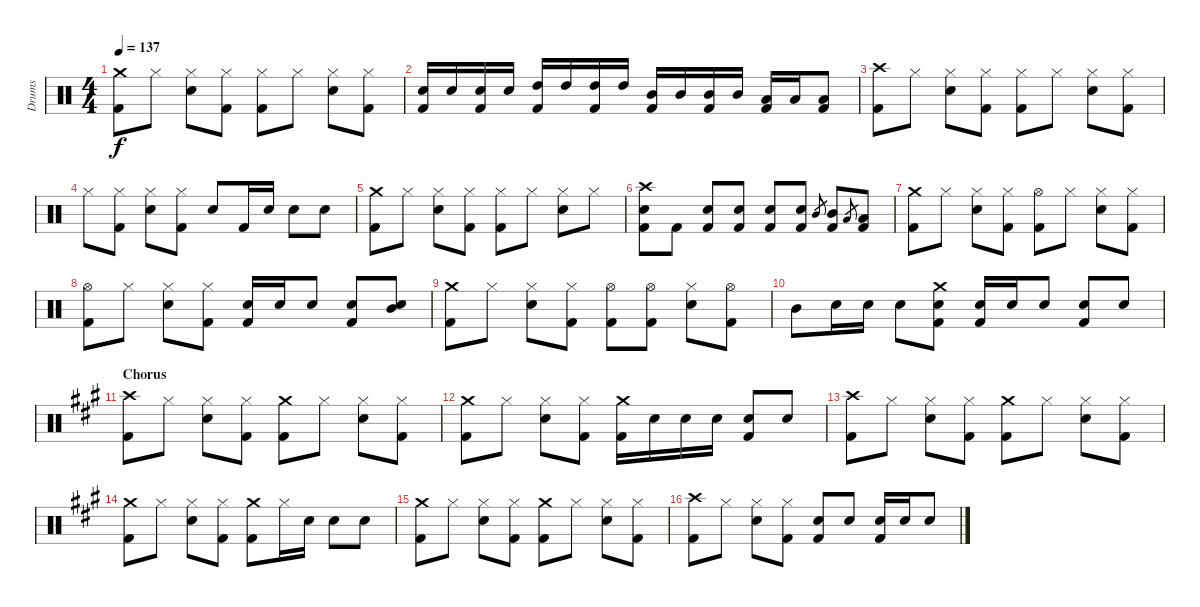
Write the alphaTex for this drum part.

\track ("Drums" "Drums") {instrument percussion}
\staff {score}
\articulation defaults
\ts (4 4)
\tempo 137
\clef neutral
\ks c
("Crash medium (hit)" "Kick (hit) 2").8{dy f} "Hi-Hat (closed)".8 ("Hi-Hat (closed)" "Snare (hit) 2").8 ("Hi-Hat (closed)" "Kick (hit) 2").8 ("Hi-Hat (closed)" "Kick (hit) 2").8 "Hi-Hat (closed)".8 ("Hi-Hat (closed)" "Snare (hit) 2").8 ("Hi-Hat (closed)" "Kick (hit) 2").8 |
("Snare (hit) 2" "Kick (hit) 2").16 "Snare (hit) 2".16 ("Snare (hit) 2" "Kick (hit) 2").16 "Snare (hit) 2".16 ("High Tom (hit)" "Kick (hit) 2").16 "High Tom (hit)".16 ("High Tom (hit)" "Kick (hit) 2").16 "High Tom (hit)".16 ("Mid Tom (hit)" "Kick (hit) 2").16 "Mid Tom (hit)".16 ("Mid Tom (hit)" "Kick (hit) 2").16 "Mid Tom (hit)".16 ("Low Tom (hit)" "Kick (hit) 2").16 "Low Tom (hit)".16 ("Low Tom (hit)" "Kick (hit) 2").8 |
("Crash high (hit)" "Kick (hit) 2").8 "Hi-Hat (closed)".8 ("Hi-Hat (closed)" "Snare (hit) 2").8 ("Hi-Hat (closed)" "Kick (hit) 2").8 ("Hi-Hat (closed)" "Kick (hit) 2").8 "Hi-Hat (closed)".8 ("Hi-Hat (closed)" "Snare (hit) 2").8 ("Hi-Hat (closed)" "Kick (hit) 2").8 |
"Hi-Hat (closed)".8 ("Hi-Hat (closed)" "Kick (hit) 2").8 ("Hi-Hat (closed)" "Snare (hit) 2").8 ("Hi-Hat (closed)" "Kick (hit) 2").8 "Snare (hit) 2".8 "Kick (hit) 2".16 "Snare (hit) 2".16 "Snare (hit) 2".8 "Snare (hit) 2".8 |
("Crash medium (hit)" "Kick (hit) 2").8 "Hi-Hat (closed)".8 ("Hi-Hat (closed)" "Snare (hit) 2").8 ("Hi-Hat (closed)" "Kick (hit) 2").8 ("Hi-Hat (closed)" "Kick (hit) 2").8 "Hi-Hat (closed)".8 ("Hi-Hat (closed)" "Snare (hit) 2").8 "Hi-Hat (closed)".8 |
("Crash high (hit)" "Snare (hit) 2" "Kick (hit) 2").8 "Kick (hit) 2".8 ("Snare (hit) 2" "Kick (hit) 2").8 ("Snare (hit) 2" "Kick (hit) 2").8 ("Snare (hit) 2" "Kick (hit) 2").8 ("Snare (hit) 2" "Kick (hit) 2").8 "Mid Tom (hit)".8{gr} ("Mid Tom (hit)" "Kick (hit) 2").8 "Low Tom (hit)".8{gr} ("Low Tom (hit)" "Kick (hit) 2").8 |
("Crash medium (hit)" "Kick (hit) 2").8 "Hi-Hat (closed)".8 ("Hi-Hat (closed)" "Snare (hit) 2").8 ("Hi-Hat (closed)" "Kick (hit) 2").8 ("Hi-Hat (open)" "Kick (hit) 2").8 "Hi-Hat (closed)".8 ("Hi-Hat (closed)" "Snare (hit) 2").8 ("Hi-Hat (closed)" "Kick (hit) 2").8 |
("Hi-Hat (open)" "Kick (hit) 2").8 "Hi-Hat (closed)".8 ("Hi-Hat (closed)" "Snare (hit) 2").8 ("Hi-Hat (closed)" "Kick (hit) 2").8 ("Snare (hit) 2" "Kick (hit) 2").16 "Snare (hit) 2".16 "Snare (hit) 2".8 ("Snare (hit) 2" "Kick (hit) 2").8 ("Mid Tom (hit)" "Snare (hit) 2").8 |
("Crash medium (hit)" "Kick (hit) 2").8 "Hi-Hat (closed)".8 ("Hi-Hat (closed)" "Snare (hit) 2").8 ("Hi-Hat (closed)" "Kick (hit) 2").8 ("Hi-Hat (open)" "Kick (hit) 2").8 ("Hi-Hat (open)" "Kick (hit) 2").8 ("Hi-Hat (closed)" "Snare (hit) 2").8 ("Hi-Hat (open)" "Kick (hit) 2").8 |
"Mid Tom (hit)".8 "Snare (hit) 2".16 "Snare (hit) 2".16 "Snare (hit) 2".8 ("Crash medium (hit)" "Snare (hit) 2" "Kick (hit) 2").8 ("Snare (hit) 2" "Kick (hit) 2").16 "Snare (hit) 2".16 "Snare (hit) 2".8 ("Snare (hit) 2" "Kick (hit) 2").8 "Snare (hit) 2".8 |
\section ("" "Chorus")
\ks a
("Crash high (hit)" "Kick (hit) 2").8 "Hi-Hat (closed)".8 ("Hi-Hat (closed)" "Snare (hit) 2").8 ("Hi-Hat (closed)" "Kick (hit) 2").8 ("Crash medium (hit)" "Kick (hit) 2").8 "Hi-Hat (closed)".8 ("Hi-Hat (closed)" "Snare (hit) 2").8 ("Hi-Hat (closed)" "Kick (hit) 2").8 |
("Crash medium (hit)" "Kick (hit) 2").8 "Hi-Hat (closed)".8 ("Hi-Hat (closed)" "Snare (hit) 2").8 ("Hi-Hat (closed)" "Kick (hit) 2").8 ("Crash medium (hit)" "Kick (hit) 2").16 "Snare (hit) 2".16 "Snare (hit) 2".16 "Snare (hit) 2".16 ("Snare (hit) 2" "Kick (hit) 2").8 "Snare (hit) 2".8 |
("Crash high (hit)" "Kick (hit) 2").8 "Hi-Hat (closed)".8 ("Hi-Hat (closed)" "Snare (hit) 2").8 ("Hi-Hat (closed)" "Kick (hit) 2").8 ("Crash medium (hit)" "Kick (hit) 2").8 "Hi-Hat (closed)".8 ("Hi-Hat (closed)" "Snare (hit) 2").8 ("Hi-Hat (closed)" "Kick (hit) 2").8 |
("Crash medium (hit)" "Kick (hit) 2").8 "Hi-Hat (closed)".8 ("Hi-Hat (closed)" "Snare (hit) 2").8 ("Hi-Hat (closed)" "Kick (hit) 2").8 ("Crash medium (hit)" "Kick (hit) 2").8 "Hi-Hat (closed)".16 "Snare (hit) 2".16 "Snare (hit) 2".8 "Snare (hit) 2".8 |
("Crash medium (hit)" "Kick (hit) 2").8 "Hi-Hat (closed)".8 ("Hi-Hat (closed)" "Snare (hit) 2").8 ("Hi-Hat (closed)" "Kick (hit) 2").8 ("Crash medium (hit)" "Kick (hit) 2").8 "Hi-Hat (closed)".8 ("Hi-Hat (closed)" "Snare (hit) 2").8 ("Hi-Hat (closed)" "Kick (hit) 2").8 |
("Crash high (hit)" "Kick (hit) 2").8 "Hi-Hat (closed)".8 ("Hi-Hat (closed)" "Snare (hit) 2").8 ("Hi-Hat (closed)" "Kick (hit) 2").8 ("Snare (hit) 2" "Kick (hit) 2").8 "Snare (hit) 2".8 ("Snare (hit) 2" "Kick (hit) 2").16 "Snare (hit) 2".16 "Snare (hit) 2".8
